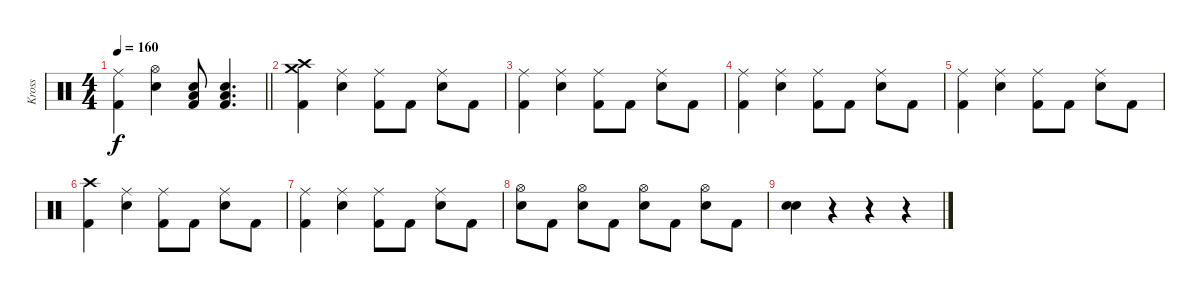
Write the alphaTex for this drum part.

\track ("Kross" "Kross") {instrument percussion}
\staff {score}
\articulation defaults
\ts (4 4)
\tempo 160
\clef neutral
\barLineRight lightlight
\ks c
("Ride (middle)" "Kick (hit) 2").4{dy f} ("Hi-Hat (open)" "Electric Snare (hit)").4 ("Electric Snare (hit)" "Low Floor Tom (hit)" "Kick (hit) 2").8 ("Electric Snare (hit)" "Low Floor Tom (hit)" "Kick (hit) 2").4{d} |
("Crash high (hit)" "Crash medium (hit)" "Kick (hit) 2").4 ("Ride (middle)" "Electric Snare (hit)").4 ("Ride (middle)" "Kick (hit) 2").8 "Kick (hit) 2".8 ("Ride (middle)" "Electric Snare (hit)").8 "Kick (hit) 2".8 |
("Ride (middle)" "Kick (hit) 2").4 ("Ride (middle)" "Electric Snare (hit)").4 ("Ride (middle)" "Kick (hit) 2").8 "Kick (hit) 2".8 ("Ride (middle)" "Electric Snare (hit)").8 "Kick (hit) 2".8 |
("Ride (middle)" "Kick (hit) 2").4 ("Ride (middle)" "Electric Snare (hit)").4 ("Ride (middle)" "Kick (hit) 2").8 "Kick (hit) 2".8 ("Ride (middle)" "Electric Snare (hit)").8 "Kick (hit) 2".8 |
("Ride (middle)" "Kick (hit) 2").4 ("Ride (middle)" "Electric Snare (hit)").4 ("Ride (middle)" "Kick (hit) 2").8 "Kick (hit) 2".8 ("Ride (middle)" "Electric Snare (hit)").8 "Kick (hit) 2".8 |
("Crash high (hit)" "Kick (hit) 2").4 ("Ride (middle)" "Electric Snare (hit)").4 ("Ride (middle)" "Kick (hit) 2").8 "Kick (hit) 2".8 ("Ride (middle)" "Electric Snare (hit)").8 "Kick (hit) 2".8 |
("Ride (middle)" "Kick (hit) 2").4 ("Ride (middle)" "Electric Snare (hit)").4 ("Ride (middle)" "Kick (hit) 2").8 "Kick (hit) 2".8 ("Ride (middle)" "Electric Snare (hit)").8 "Kick (hit) 2".8 |
("Hi-Hat (open)" "Electric Snare (hit)").8 "Kick (hit) 2".8 ("Hi-Hat (open)" "Electric Snare (hit)").8 "Kick (hit) 2".8 ("Hi-Hat (open)" "Electric Snare (hit)").8 "Kick (hit) 2".8 ("Hi-Hat (open)" "Electric Snare (hit)").8 "Kick (hit) 2".8 |
("Electric Snare (hit)" "Electric Snare (hit)").4 r.4 r.4 r.4
